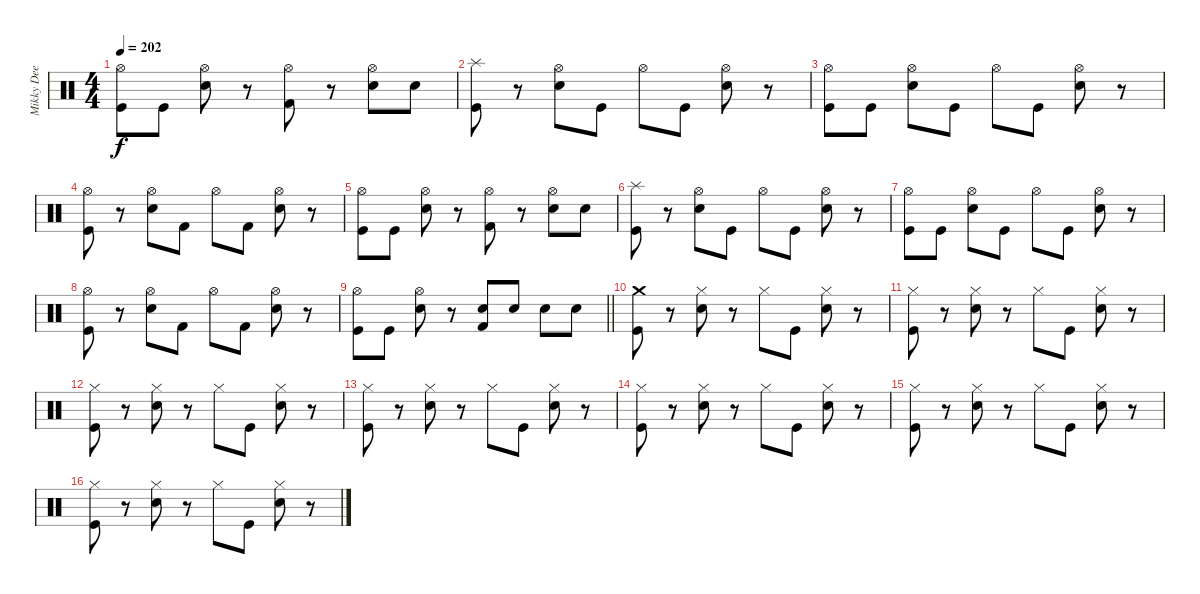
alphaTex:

\track ("Mikky Dee" "Mikky Dee") {instrument percussion}
\staff {score}
\articulation defaults
\ts (4 4)
\tempo 202
\clef neutral
\ks c
("Hi-Hat (open)" "Kick (hit)").8{dy f} "Kick (hit)".8 ("Hi-Hat (open)" "Electric Snare (hit)").8 r.8 ("Hi-Hat (open)" "Kick (hit) 2").8 r.8 ("Hi-Hat (open)" "Electric Snare (hit)").8 "Electric Snare (hit)".8 |
("Splash (hit)" "Kick (hit)").8 r.8 ("Hi-Hat (open)" "Electric Snare (hit)").8 "Kick (hit)".8 "Hi-Hat (open)".8 "Kick (hit)".8 ("Hi-Hat (open)" "Electric Snare (hit)").8 r.8 |
("Hi-Hat (open)" "Kick (hit)").8 "Kick (hit)".8 ("Hi-Hat (open)" "Electric Snare (hit)").8 "Kick (hit)".8 "Hi-Hat (open)".8 "Kick (hit)".8 ("Hi-Hat (open)" "Electric Snare (hit)").8 r.8 |
("Hi-Hat (open)" "Kick (hit)").8 r.8 ("Hi-Hat (open)" "Electric Snare (hit)").8 "Kick (hit) 2".8 "Hi-Hat (open)".8 "Kick (hit) 2".8 ("Hi-Hat (open)" "Electric Snare (hit)").8 r.8 |
("Hi-Hat (open)" "Kick (hit)").8 "Kick (hit)".8 ("Hi-Hat (open)" "Electric Snare (hit)").8 r.8 ("Hi-Hat (open)" "Kick (hit) 2").8 r.8 ("Hi-Hat (open)" "Electric Snare (hit)").8 "Electric Snare (hit)".8 |
("Splash (hit)" "Kick (hit)").8 r.8 ("Hi-Hat (open)" "Electric Snare (hit)").8 "Kick (hit)".8 "Hi-Hat (open)".8 "Kick (hit)".8 ("Hi-Hat (open)" "Electric Snare (hit)").8 r.8 |
("Hi-Hat (open)" "Kick (hit)").8 "Kick (hit)".8 ("Hi-Hat (open)" "Electric Snare (hit)").8 "Kick (hit)".8 "Hi-Hat (open)".8 "Kick (hit)".8 ("Hi-Hat (open)" "Electric Snare (hit)").8 r.8 |
("Hi-Hat (open)" "Kick (hit)").8 r.8 ("Hi-Hat (open)" "Electric Snare (hit)").8 "Kick (hit) 2".8 "Hi-Hat (open)".8 "Kick (hit) 2".8 ("Hi-Hat (open)" "Electric Snare (hit)").8 r.8 |
\barLineRight lightlight
("Hi-Hat (open)" "Kick (hit)").8 "Kick (hit)".8 ("Hi-Hat (open)" "Electric Snare (hit)").8 r.8 ("Electric Snare (hit)" "Kick (hit) 2").8 "Electric Snare (hit)".8 "Electric Snare (hit)".8 "Electric Snare (hit)".8 |
("Crash medium (hit)" "Kick (hit)").8 r.8 ("Hi-Hat (closed)" "Electric Snare (hit)").8 r.8 "Hi-Hat (closed)".8 "Kick (hit)".8 ("Hi-Hat (closed)" "Electric Snare (hit)").8 r.8 |
("Hi-Hat (closed)" "Kick (hit)").8 r.8 ("Hi-Hat (closed)" "Electric Snare (hit)").8 r.8 "Hi-Hat (closed)".8 "Kick (hit)".8 ("Hi-Hat (closed)" "Electric Snare (hit)").8 r.8 |
("Hi-Hat (closed)" "Kick (hit)").8 r.8 ("Hi-Hat (closed)" "Electric Snare (hit)").8 r.8 "Hi-Hat (closed)".8 "Kick (hit)".8 ("Hi-Hat (closed)" "Electric Snare (hit)").8 r.8 |
("Hi-Hat (closed)" "Kick (hit)").8 r.8 ("Hi-Hat (closed)" "Electric Snare (hit)").8 r.8 "Hi-Hat (closed)".8 "Kick (hit)".8 ("Hi-Hat (closed)" "Electric Snare (hit)").8 r.8 |
("Hi-Hat (closed)" "Kick (hit)").8 r.8 ("Hi-Hat (closed)" "Electric Snare (hit)").8 r.8 "Hi-Hat (closed)".8 "Kick (hit)".8 ("Hi-Hat (closed)" "Electric Snare (hit)").8 r.8 |
("Hi-Hat (closed)" "Kick (hit)").8 r.8 ("Hi-Hat (closed)" "Electric Snare (hit)").8 r.8 "Hi-Hat (closed)".8 "Kick (hit)".8 ("Hi-Hat (closed)" "Electric Snare (hit)").8 r.8 |
("Hi-Hat (closed)" "Kick (hit)").8 r.8 ("Hi-Hat (closed)" "Electric Snare (hit)").8 r.8 "Hi-Hat (closed)".8 "Kick (hit)".8 ("Hi-Hat (closed)" "Electric Snare (hit)").8 r.8
